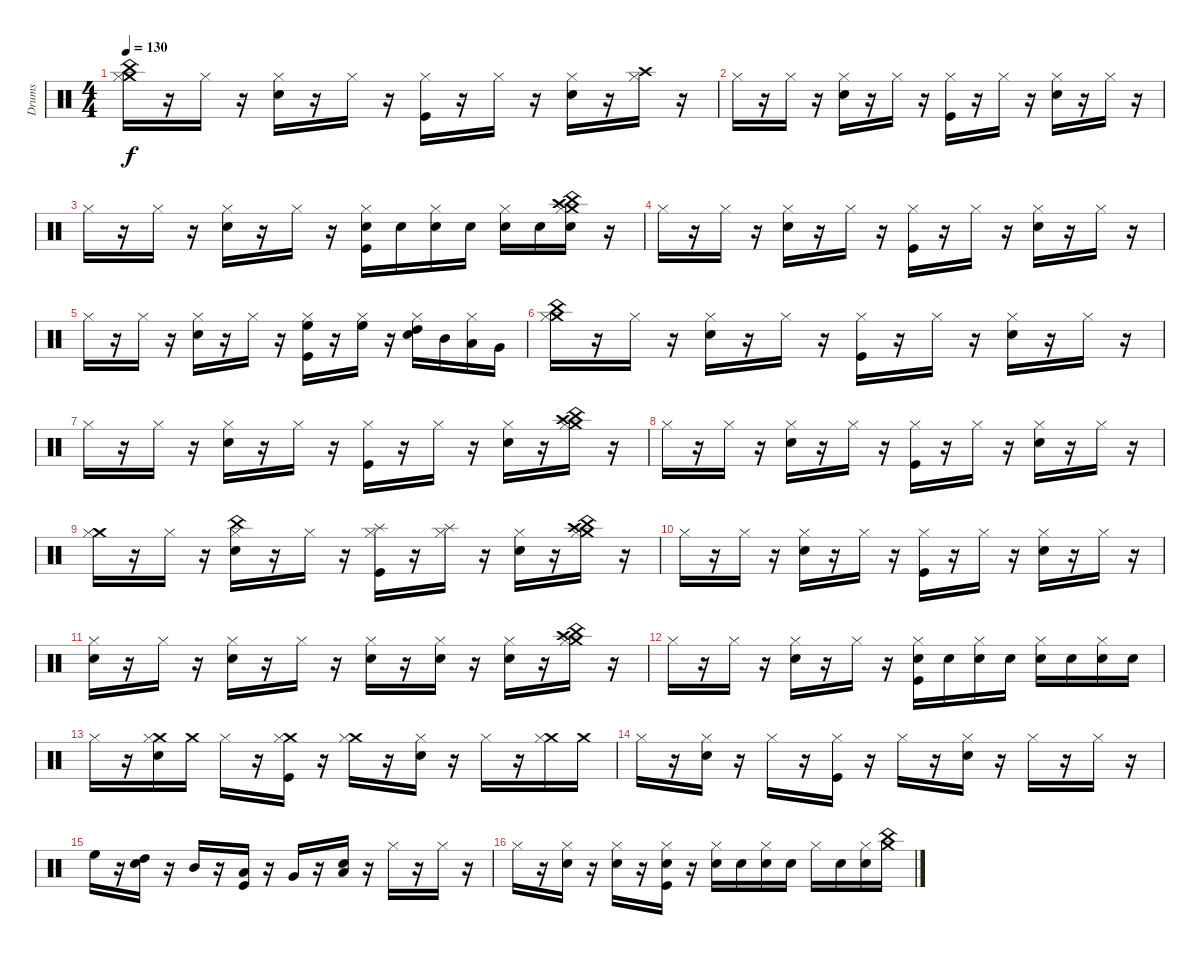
\track ("Drums" "Drums") {instrument percussion}
\staff {score}
\articulation defaults
\ts (4 4)
\tempo 130
\clef neutral
\ks c
("China (hit)" "Crash medium (hit)" "Hi-Hat (closed)").16{dy f} r.16 "Hi-Hat (closed)".16 r.16 ("Snare (hit) 2" "Hi-Hat (closed)").16 r.16 "Hi-Hat (closed)".16 r.16 ("Kick (hit)" "Hi-Hat (closed)").16 r.16 "Hi-Hat (closed)".16 r.16 ("Snare (hit) 2" "Hi-Hat (closed)").16 r.16 ("Crash high (hit)" "Hi-Hat (closed)").16 r.16 |
"Hi-Hat (closed)".16 r.16 "Hi-Hat (closed)".16 r.16 ("Snare (hit) 2" "Hi-Hat (closed)").16 r.16 "Hi-Hat (closed)".16 r.16 ("Kick (hit)" "Hi-Hat (closed)").16 r.16 "Hi-Hat (closed)".16 r.16 ("Snare (hit) 2" "Hi-Hat (closed)").16 r.16 "Hi-Hat (closed)".16 r.16 |
"Hi-Hat (closed)".16 r.16 "Hi-Hat (closed)".16 r.16 ("Snare (hit) 2" "Hi-Hat (closed)").16 r.16 "Hi-Hat (closed)".16 r.16 ("Electric Snare (hit)" "Kick (hit)" "Hi-Hat (closed)").16 "Snare (hit) 2".16 ("Electric Snare (hit)" "Hi-Hat (closed)").16 "Snare (hit) 2".16 ("Electric Snare (hit)" "Hi-Hat (closed)").16 "Electric Snare (hit)".16 ("Crash high (hit)" "China (hit)" "Crash medium (hit)" "Snare (hit) 2" "Hi-Hat (closed)").16 r.16 |
"Hi-Hat (closed)".16 r.16 "Hi-Hat (closed)".16 r.16 ("Snare (hit) 2" "Hi-Hat (closed)").16 r.16 "Hi-Hat (closed)".16 r.16 ("Kick (hit)" "Hi-Hat (closed)").16 r.16 "Hi-Hat (closed)".16 r.16 ("Snare (hit) 2" "Hi-Hat (closed)").16 r.16 "Hi-Hat (closed)".16 r.16 |
"Hi-Hat (closed)".16 r.16 "Hi-Hat (closed)".16 r.16 ("Snare (hit) 2" "Hi-Hat (closed)").16 r.16 "Hi-Hat (closed)".16 r.16 ("High Floor Tom (hit)" "Kick (hit)" "Hi-Hat (closed)").16 r.16 ("High Floor Tom (hit)" "Hi-Hat (closed)").16 r.16 ("High Tom (hit)" "Snare (hit) 2" "Hi-Hat (closed)").16 "Mid Tom (hit)".16 ("Low Tom (hit)" "Hi-Hat (closed)").16 "Very Low Tom (hit)".16 |
("China (hit)" "Crash medium (hit)" "Hi-Hat (closed)").16 r.16 "Hi-Hat (closed)".16 r.16 ("Snare (hit) 2" "Hi-Hat (closed)").16 r.16 "Hi-Hat (closed)".16 r.16 ("Kick (hit)" "Hi-Hat (closed)").16 r.16 "Hi-Hat (closed)".16 r.16 ("Snare (hit) 2" "Hi-Hat (closed)").16 r.16 "Hi-Hat (closed)".16 r.16 |
"Hi-Hat (closed)".16 r.16 "Hi-Hat (closed)".16 r.16 ("Snare (hit) 2" "Hi-Hat (closed)").16 r.16 "Hi-Hat (closed)".16 r.16 ("Kick (hit)" "Hi-Hat (closed)").16 r.16 "Hi-Hat (closed)".16 r.16 ("Snare (hit) 2" "Hi-Hat (closed)").16 r.16 ("Crash high (hit)" "China (hit)" "Crash medium (hit)" "Hi-Hat (closed)").16 r.16 |
"Hi-Hat (closed)".16 r.16 "Hi-Hat (closed)".16 r.16 ("Snare (hit) 2" "Hi-Hat (closed)").16 r.16 "Hi-Hat (closed)".16 r.16 ("Kick (hit)" "Hi-Hat (closed)").16 r.16 "Hi-Hat (closed)".16 r.16 ("Snare (hit) 2" "Hi-Hat (closed)").16 r.16 "Hi-Hat (closed)".16 r.16 |
("Crash medium (hit)" "Hi-Hat (closed)").16 r.16 "Hi-Hat (closed)".16 r.16 ("China (hit)" "Snare (hit) 2" "Hi-Hat (closed)").16 r.16 "Hi-Hat (closed)".16 r.16 ("Splash (hit)" "Kick (hit)" "Hi-Hat (closed)").16 r.16 ("Splash (hit)" "Hi-Hat (closed)").16 r.16 ("Snare (hit) 2" "Hi-Hat (closed)").16 r.16 ("Crash high (hit)" "China (hit)" "Crash medium (hit)" "Hi-Hat (closed)").16 r.16 |
"Hi-Hat (closed)".16 r.16 "Hi-Hat (closed)".16 r.16 ("Snare (hit) 2" "Hi-Hat (closed)").16 r.16 "Hi-Hat (closed)".16 r.16 ("Kick (hit)" "Hi-Hat (closed)").16 r.16 "Hi-Hat (closed)".16 r.16 ("Snare (hit) 2" "Hi-Hat (closed)").16 r.16 "Hi-Hat (closed)".16 r.16 |
("Snare (hit) 2" "Hi-Hat (closed)").16 r.16 "Hi-Hat (closed)".16 r.16 ("Snare (hit) 2" "Hi-Hat (closed)").16 r.16 "Hi-Hat (closed)".16 r.16 ("Snare (hit) 2" "Hi-Hat (closed)").16 r.16 ("Snare (hit) 2" "Hi-Hat (closed)").16 r.16 ("Snare (hit) 2" "Hi-Hat (closed)").16 r.16 ("Crash high (hit)" "China (hit)" "Crash medium (hit)" "Hi-Hat (closed)").16 r.16 |
"Hi-Hat (closed)".16 r.16 "Hi-Hat (closed)".16 r.16 ("Snare (hit) 2" "Hi-Hat (closed)").16 r.16 "Hi-Hat (closed)".16 r.16 ("Electric Snare (hit)" "Kick (hit)" "Hi-Hat (closed)").16 "Electric Snare (hit)".16 ("Snare (hit) 2" "Hi-Hat (closed)").16 "Electric Snare (hit)".16 ("Snare (hit) 2" "Hi-Hat (closed)").16 "Electric Snare (hit)".16 ("Snare (hit) 2" "Hi-Hat (closed)").16 "Electric Snare (hit)".16 |
"Hi-Hat (closed)".16 r.16 ("Crash medium (hit)" "Electric Snare (hit)" "Hi-Hat (closed)").16 "Crash medium (hit)".16 "Hi-Hat (closed)".16 r.16 ("Crash medium (hit)" "Kick (hit)" "Hi-Hat (closed)").16 r.16 ("Crash medium (hit)" "Hi-Hat (closed)").16 r.16 ("Electric Snare (hit)" "Hi-Hat (closed)").16 r.16 "Hi-Hat (closed)".16 r.16 ("Crash medium (hit)" "Hi-Hat (closed)").16 "Crash medium (hit)".16 |
"Hi-Hat (closed)".16 r.16 ("Electric Snare (hit)" "Hi-Hat (closed)").16 r.16 "Hi-Hat (closed)".16 r.16 ("Kick (hit)" "Hi-Hat (closed)").16 r.16 "Hi-Hat (closed)".16 r.16 ("Electric Snare (hit)" "Hi-Hat (closed)").16 r.16 "Hi-Hat (closed)".16 r.16 "Hi-Hat (closed)".16 r.16 |
"High Floor Tom (hit)".16 r.16 ("High Tom (hit)" "Electric Snare (hit)").16 r.16 "Mid Tom (hit)".16 r.16 ("Low Tom (hit)" "Kick (hit)").16 r.16 "Very Low Tom (hit)".16 r.16 ("Low Floor Tom (hit)" "Electric Snare (hit)").16 r.16 "Hi-Hat (closed)".16 r.16 "Hi-Hat (closed)".16 r.16 |
"Hi-Hat (closed)".16 r.16 ("Electric Snare (hit)" "Hi-Hat (closed)").16 r.16 ("Electric Snare (hit)" "Hi-Hat (closed)").16 r.16 ("Electric Snare (hit)" "Kick (hit)" "Hi-Hat (closed)").16 r.16 ("Electric Snare (hit)" "Hi-Hat (closed)").16 "Electric Snare (hit)".16 ("Electric Snare (hit)" "Hi-Hat (closed)").16 "Snare (hit) 2".16 "Hi-Hat (closed)".16 "Electric Snare (hit)".16 ("Electric Snare (hit)" "Hi-Hat (closed)").16 ("China (hit)" "Crash medium (hit)").16
